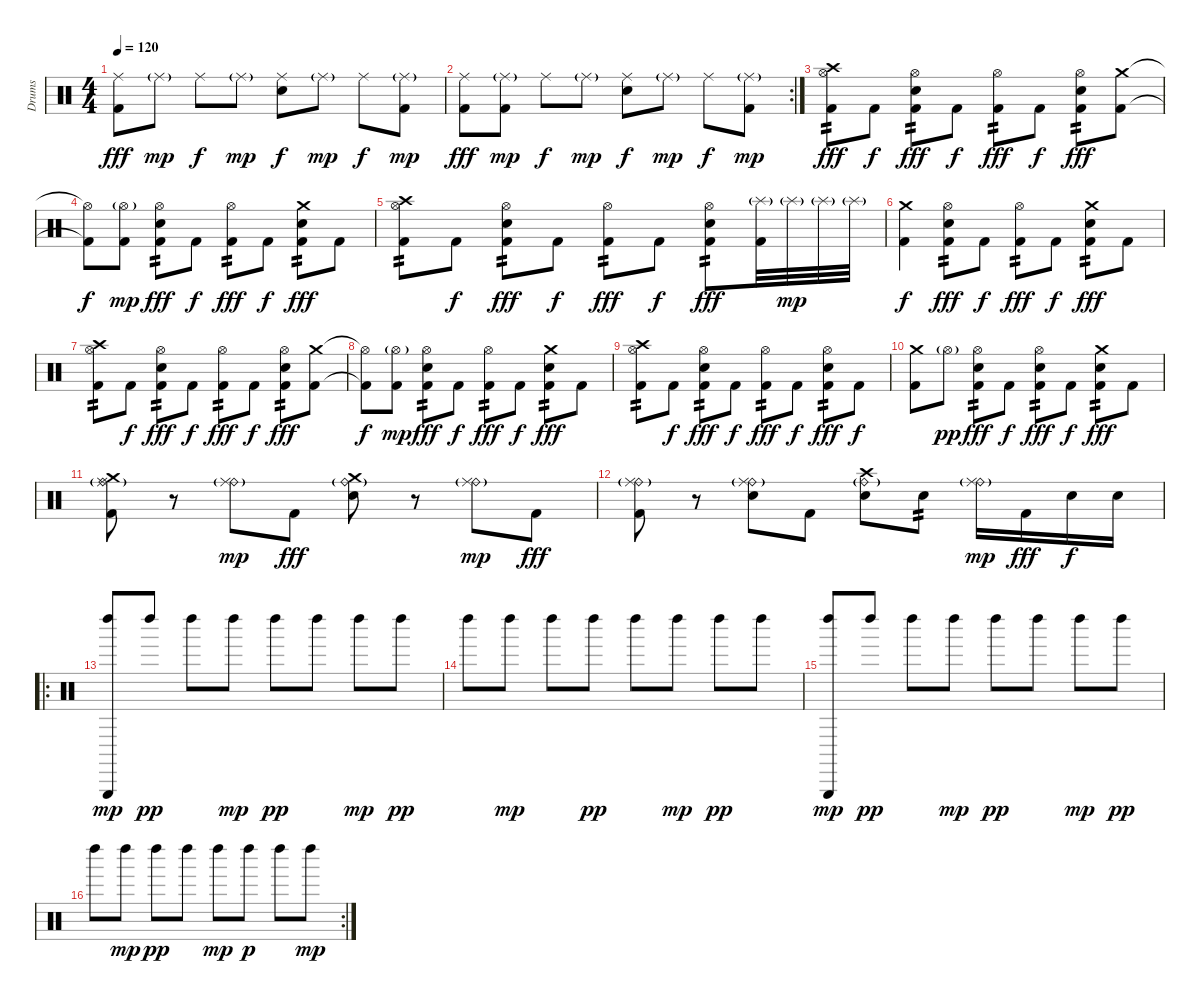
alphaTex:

\track ("Drums" "Drums") {instrument percussion}
\staff {score}
\articulation defaults
\ts (4 4)
\tempo 120
\clef neutral
\ks c
("Ride (middle)" "Kick (hit) 2").8{dy fff} "Ride (middle)"{g}.8{dy mp} "Ride (middle)".8{dy f} "Ride (middle)"{g}.8{dy mp} ("Ride (middle)" "Electric Snare (hit)").8{dy f} "Ride (middle)"{g}.8{dy mp} "Ride (middle)".8{dy f} ("Ride (middle)"{g} "Kick (hit) 2").8{dy mp} |
\rc 2
("Ride (middle)" "Kick (hit) 2").8{dy fff} ("Ride (middle)"{g} "Kick (hit) 2").8{dy mp} "Ride (middle)".8{dy f} "Ride (middle)"{g}.8{dy mp} ("Ride (middle)" "Electric Snare (hit)").8{dy f} "Ride (middle)"{g}.8{dy mp} "Ride (middle)".8{dy f} ("Ride (middle)"{g} "Kick (hit) 2").8{dy mp} |
("Hi-Hat (open)" "Crash high (hit)" "Kick (hit) 2").8{tp 2 dy fff} "Kick (hit) 2".8{dy f} ("Hi-Hat (open)" "Electric Snare (hit)" "Kick (hit) 2").8{tp 2 dy fff} "Kick (hit) 2".8{dy f} ("Hi-Hat (open)" "Kick (hit) 2").8{tp 2 dy fff} "Kick (hit) 2".8{dy f} ("Hi-Hat (open)" "Electric Snare (hit)" "Kick (hit) 2").8{tp 2 dy fff} ("Crash medium (hit)" "Kick (hit) 2").8 |
("Hi-Hat (open)"{t} "Kick (hit) 2"{t}).8{dy f} ("Hi-Hat (open)"{g} "Kick (hit) 2").8{dy mp} ("Hi-Hat (open)" "Electric Snare (hit)" "Kick (hit) 2").8{tp 2 dy fff} "Kick (hit) 2".8{dy f} ("Hi-Hat (open)" "Kick (hit) 2").8{tp 2 dy fff} "Kick (hit) 2".8{dy f} ("Crash medium (hit)" "Electric Snare (hit)" "Kick (hit) 2").8{tp 2 dy fff} "Kick (hit) 2".8 |
("Hi-Hat (open)" "Crash high (hit)" "Kick (hit) 2").8{tp 2} "Kick (hit) 2".8{dy f} ("Hi-Hat (open)" "Electric Snare (hit)" "Kick (hit) 2").8{tp 2 dy fff} "Kick (hit) 2".8{dy f} ("Hi-Hat (open)" "Kick (hit) 2").8{tp 2 dy fff} "Kick (hit) 2".8{dy f} ("Hi-Hat (open)" "Electric Snare (hit)" "Kick (hit) 2").8{tp 2 dy fff} ("Splash (hit)"{g} "Kick (hit) 2").32 "Splash (hit)"{g}.32{dy mp} "Splash (hit)"{g}.32 "Splash (hit)"{g}.32 |
("Crash medium (hit)" "Kick (hit) 2").4{dy f} ("Hi-Hat (open)" "Electric Snare (hit)" "Kick (hit) 2").8{tp 2 dy fff} "Kick (hit) 2".8{dy f} ("Hi-Hat (open)" "Kick (hit) 2").8{tp 2 dy fff} "Kick (hit) 2".8{dy f} ("Crash medium (hit)" "Electric Snare (hit)" "Kick (hit) 2").8{tp 2 dy fff} "Kick (hit) 2".8 |
("Hi-Hat (open)" "Crash high (hit)" "Kick (hit) 2").8{tp 2} "Kick (hit) 2".8{dy f} ("Hi-Hat (open)" "Electric Snare (hit)" "Kick (hit) 2").8{tp 2 dy fff} "Kick (hit) 2".8{dy f} ("Hi-Hat (open)" "Kick (hit) 2").8{tp 2 dy fff} "Kick (hit) 2".8{dy f} ("Hi-Hat (open)" "Electric Snare (hit)" "Kick (hit) 2").8{tp 2 dy fff} ("Crash medium (hit)" "Kick (hit) 2").8 |
("Hi-Hat (open)"{t} "Kick (hit) 2"{t}).8{dy f} ("Hi-Hat (open)"{g} "Kick (hit) 2").8{dy mp} ("Hi-Hat (open)" "Electric Snare (hit)" "Kick (hit) 2").8{tp 2 dy fff} "Kick (hit) 2".8{dy f} ("Hi-Hat (open)" "Kick (hit) 2").8{tp 2 dy fff} "Kick (hit) 2".8{dy f} ("Crash medium (hit)" "Electric Snare (hit)" "Kick (hit) 2").8{tp 2 dy fff} "Kick (hit) 2".8 |
("Hi-Hat (open)" "Crash high (hit)" "Kick (hit) 2").8{tp 2} "Kick (hit) 2".8{dy f} ("Hi-Hat (open)" "Electric Snare (hit)" "Kick (hit) 2").8{tp 2 dy fff} "Kick (hit) 2".8{dy f} ("Hi-Hat (open)" "Kick (hit) 2").8{tp 2 dy fff} "Kick (hit) 2".8{dy f} ("Hi-Hat (open)" "Electric Snare (hit)" "Kick (hit) 2").8{tp 2 dy fff} "Kick (hit) 2".8{dy f} |
("Crash medium (hit)" "Kick (hit) 2").8 "Hi-Hat (open)"{g}.8{dy pp} ("Hi-Hat (open)" "Electric Snare (hit)" "Kick (hit) 2").8{tp 2 dy fff} "Kick (hit) 2".8{dy f} ("Hi-Hat (open)" "Electric Snare (hit)" "Kick (hit) 2").8{tp 2 dy fff} "Kick (hit) 2".8{dy f} ("Crash medium (hit)" "Electric Snare (hit)" "Kick (hit) 2").8{tp 2 dy fff} "Kick (hit) 2".8 |
("Ride (bell)"{g} "Ride (middle)" "Crash medium (hit)" "Kick (hit) 2").8 r.8 ("Ride (bell)"{g} "Ride (middle)").8{dy mp} "Kick (hit) 2".8{dy fff} ("Ride (bell)"{g} "Crash medium (hit)" "Electric Snare (hit)").8 r.8 ("Ride (bell)"{g} "Ride (middle)").8{dy mp} "Kick (hit) 2".8{dy fff} |
("Ride (bell)"{g} "Ride (middle)" "Kick (hit) 2").8 r.8 ("Ride (bell)"{g} "Ride (middle)" "Electric Snare (hit)").8 "Kick (hit) 2".8 ("Ride (bell)"{g} "Crash high (hit)" "Electric Snare (hit)").8 "Electric Snare (hit)".8{tp 2} ("Ride (bell)"{g} "Ride (middle)").16{dy mp} "Kick (hit) 2".16{dy fff} "Electric Snare (hit)".16{dy f} "Electric Snare (hit)".16 |
\ro
("Left Maraca (hit)" "Triangle (hit)").8{dy mp} "Left Maraca (hit)".8{dy pp} "Left Maraca (hit)".8 "Left Maraca (hit)".8{dy mp} "Left Maraca (hit)".8{dy pp} "Left Maraca (hit)".8 "Left Maraca (hit)".8{dy mp} "Left Maraca (hit)".8{dy pp} |
"Left Maraca (hit)".8 "Left Maraca (hit)".8{dy mp} "Left Maraca (hit)".8 "Left Maraca (hit)".8{dy pp} "Left Maraca (hit)".8 "Left Maraca (hit)".8{dy mp} "Left Maraca (hit)".8{dy pp} "Left Maraca (hit)".8 |
("Left Maraca (hit)" "Triangle (hit)").8{dy mp} "Left Maraca (hit)".8{dy pp} "Left Maraca (hit)".8 "Left Maraca (hit)".8{dy mp} "Left Maraca (hit)".8{dy pp} "Left Maraca (hit)".8 "Left Maraca (hit)".8{dy mp} "Left Maraca (hit)".8{dy pp} |
\rc 2 "Left Maraca (hit)".8 "Left Maraca (hit)".8{dy mp} "Left Maraca (hit)".8{dy pp} "Left Maraca (hit)".8 "Left Maraca (hit)".8{dy mp} "Left Maraca (hit)".8{dy p} "Left Maraca (hit)".8 "Left Maraca (hit)".8{dy mp}
